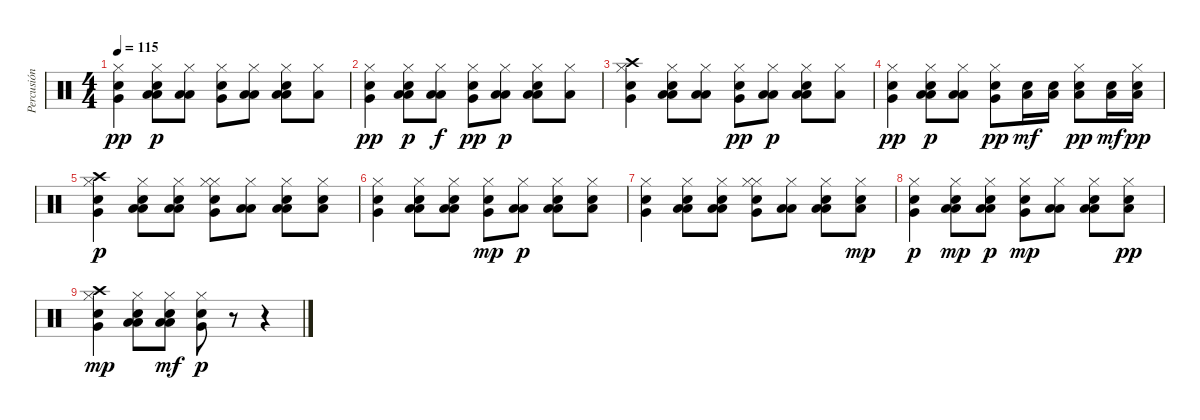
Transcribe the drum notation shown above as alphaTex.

\track ("Percusión" "Percusión") {instrument percussion}
\staff {score}
\articulation defaults
\ts (4 4)
\tempo 115
\clef neutral
\ks c
("Snare (hit) 2" "Very Low Tom (hit)" "Hi-Hat (closed)").4{dy pp} ("Low Floor Tom (hit)" "Low Floor Tom (hit)" "Snare (hit) 2" "Hi-Hat (closed)").8{dy p} ("Low Floor Tom (hit)" "Low Floor Tom (hit)" "Hi-Hat (closed)").8 ("Snare (hit) 2" "Very Low Tom (hit)" "Hi-Hat (closed)").8 ("Low Floor Tom (hit)" "Low Floor Tom (hit)" "Hi-Hat (closed)").8 ("Low Floor Tom (hit)" "Low Floor Tom (hit)" "Snare (hit) 2" "Hi-Hat (closed)").8 ("Low Floor Tom (hit)" "Hi-Hat (closed)").8 |
("Snare (hit) 2" "Very Low Tom (hit)" "Hi-Hat (closed)").4{dy pp} ("Low Floor Tom (hit)" "Low Floor Tom (hit)" "Snare (hit) 2" "Hi-Hat (closed)").8{dy p} ("Low Floor Tom (hit)" "Low Floor Tom (hit)" "Hi-Hat (closed)").8{dy f} ("Snare (hit) 2" "Very Low Tom (hit)" "Hi-Hat (closed)").8{dy pp} ("Low Floor Tom (hit)" "Low Floor Tom (hit)" "Hi-Hat (closed)").8{dy p} ("Low Floor Tom (hit)" "Low Floor Tom (hit)" "Snare (hit) 2" "Hi-Hat (closed)").8 ("Low Floor Tom (hit)" "Hi-Hat (closed)").8 |
("Snare (hit) 2" "Very Low Tom (hit)" "Crash high (hit)" "Hi-Hat (closed)").4 ("Low Floor Tom (hit)" "Low Floor Tom (hit)" "Snare (hit) 2" "Hi-Hat (closed)").8 ("Low Floor Tom (hit)" "Low Floor Tom (hit)" "Hi-Hat (closed)").8 ("Snare (hit) 2" "Very Low Tom (hit)" "Hi-Hat (closed)").8{dy pp} ("Low Floor Tom (hit)" "Low Floor Tom (hit)" "Hi-Hat (closed)").8{dy p} ("Low Floor Tom (hit)" "Low Floor Tom (hit)" "Snare (hit) 2" "Hi-Hat (closed)").8 ("Low Floor Tom (hit)" "Hi-Hat (closed)").8 |
("Snare (hit) 2" "Very Low Tom (hit)" "Hi-Hat (closed)").4{dy pp} ("Low Floor Tom (hit)" "Low Floor Tom (hit)" "Snare (hit) 2" "Hi-Hat (closed)").8{dy p} ("Low Floor Tom (hit)" "Low Floor Tom (hit)" "Hi-Hat (closed)").8 ("Snare (hit) 2" "Very Low Tom (hit)" "Hi-Hat (closed)").8{dy pp} ("Snare (hit) 2" "Low Floor Tom (hit)").16{dy mf} ("Snare (hit) 2" "Low Floor Tom (hit)").16 ("Snare (hit) 2" "Low Floor Tom (hit)" "Hi-Hat (closed)").8{dy pp} ("Snare (hit) 2" "Low Floor Tom (hit)").16{dy mf} ("Snare (hit) 2" "Low Floor Tom (hit)" "Hi-Hat (closed)").16{dy pp} |
("Snare (hit) 2" "Very Low Tom (hit)" "Crash high (hit)" "Hi-Hat (closed)").4{dy p} ("Low Floor Tom (hit)" "Low Floor Tom (hit)" "Snare (hit) 2" "Hi-Hat (closed)").8 ("Low Floor Tom (hit)" "Low Floor Tom (hit)" "Snare (hit) 2" "Hi-Hat (closed)").8 ("Snare (hit) 2" "Very Low Tom (hit)" "Hi-Hat (closed)" "Hi-Hat (closed)").8 ("Low Floor Tom (hit)" "Low Floor Tom (hit)" "Hi-Hat (closed)").8 ("Low Floor Tom (hit)" "Low Floor Tom (hit)" "Snare (hit) 2" "Hi-Hat (closed)").8 ("Low Floor Tom (hit)" "Snare (hit) 2" "Hi-Hat (closed)").8 |
("Snare (hit) 2" "Very Low Tom (hit)" "Hi-Hat (closed)").4 ("Low Floor Tom (hit)" "Low Floor Tom (hit)" "Snare (hit) 2" "Hi-Hat (closed)").8 ("Low Floor Tom (hit)" "Low Floor Tom (hit)" "Snare (hit) 2" "Hi-Hat (closed)").8 ("Snare (hit) 2" "Very Low Tom (hit)" "Hi-Hat (closed)").8{dy mp} ("Low Floor Tom (hit)" "Low Floor Tom (hit)" "Hi-Hat (closed)").8{dy p} ("Low Floor Tom (hit)" "Low Floor Tom (hit)" "Snare (hit) 2" "Hi-Hat (closed)").8 ("Low Floor Tom (hit)" "Snare (hit) 2" "Hi-Hat (closed)").8 |
("Snare (hit) 2" "Very Low Tom (hit)" "Hi-Hat (closed)").4 ("Low Floor Tom (hit)" "Low Floor Tom (hit)" "Snare (hit) 2" "Hi-Hat (closed)").8 ("Low Floor Tom (hit)" "Low Floor Tom (hit)" "Hi-Hat (closed)" "Snare (hit) 2").8 ("Snare (hit) 2" "Very Low Tom (hit)" "Hi-Hat (closed)" "Hi-Hat (closed)").8 ("Low Floor Tom (hit)" "Low Floor Tom (hit)" "Hi-Hat (closed)").8 ("Low Floor Tom (hit)" "Low Floor Tom (hit)" "Snare (hit) 2" "Hi-Hat (closed)").8 ("Low Floor Tom (hit)" "Snare (hit) 2" "Hi-Hat (closed)").8{dy mp} |
("Snare (hit) 2" "Very Low Tom (hit)" "Hi-Hat (closed)").4{dy p} ("Low Floor Tom (hit)" "Low Floor Tom (hit)" "Snare (hit) 2" "Hi-Hat (closed)").8{dy mp} ("Low Floor Tom (hit)" "Low Floor Tom (hit)" "Hi-Hat (closed)" "Snare (hit) 2").8{dy p} ("Snare (hit) 2" "Very Low Tom (hit)" "Hi-Hat (closed)").8{dy mp} ("Low Floor Tom (hit)" "Low Floor Tom (hit)" "Hi-Hat (closed)").8 ("Low Floor Tom (hit)" "Low Floor Tom (hit)" "Snare (hit) 2" "Hi-Hat (closed)").8 ("Low Floor Tom (hit)" "Snare (hit) 2" "Hi-Hat (closed)").8{dy pp} |
("Snare (hit) 2" "Very Low Tom (hit)" "Crash high (hit)" "Hi-Hat (closed)").4{dy mp} ("Low Floor Tom (hit)" "Low Floor Tom (hit)" "Snare (hit) 2" "Hi-Hat (closed)").8 ("Low Floor Tom (hit)" "Low Floor Tom (hit)" "Hi-Hat (closed)" "Snare (hit) 2").8{dy mf} ("Snare (hit) 2" "Very Low Tom (hit)" "Hi-Hat (closed)").8{dy p} r.8 r.4
